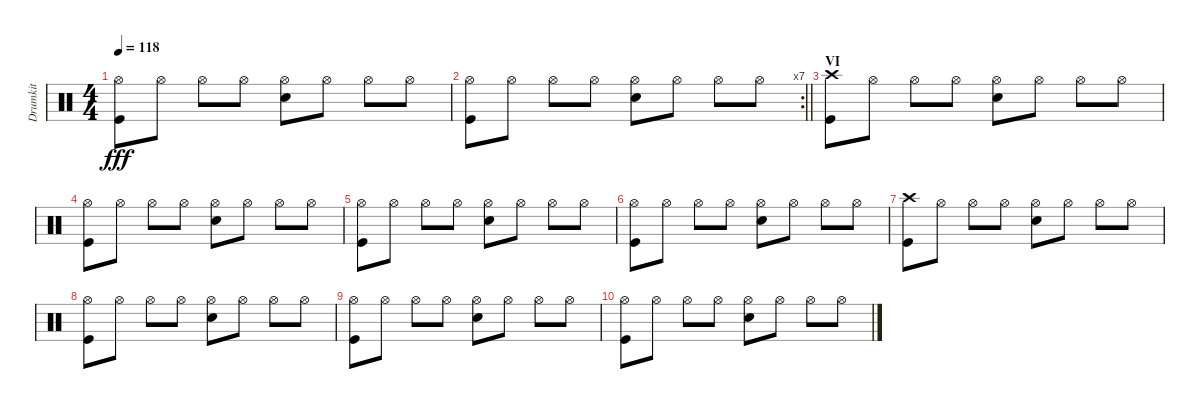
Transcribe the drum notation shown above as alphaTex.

\track ("Drumkit" "Drumkit") {instrument percussion}
\staff {score}
\articulation defaults
\ts (4 4)
\tempo 118
\clef neutral
\ks c
("Kick (hit)" "Hi-Hat (open)").8{dy fff} "Hi-Hat (open)".8 "Hi-Hat (open)".8 "Hi-Hat (open)".8 ("Hi-Hat (open)" "Snare (hit) 2").8 "Hi-Hat (open)".8 "Hi-Hat (open)".8 "Hi-Hat (open)".8 |
\rc 7
\barLineRight lightlight
("Kick (hit)" "Hi-Hat (open)").8 "Hi-Hat (open)".8 "Hi-Hat (open)".8 "Hi-Hat (open)".8 ("Hi-Hat (open)" "Snare (hit) 2").8 "Hi-Hat (open)".8 "Hi-Hat (open)".8 "Hi-Hat (open)".8{volume 16} |
\section ("" "VI")
("Kick (hit)" "Crash high (hit)").8 "Hi-Hat (open)".8 "Hi-Hat (open)".8 "Hi-Hat (open)".8 ("Hi-Hat (open)" "Snare (hit) 2").8 "Hi-Hat (open)".8 "Hi-Hat (open)".8 "Hi-Hat (open)".8 |
("Kick (hit)" "Hi-Hat (open)").8 "Hi-Hat (open)".8 "Hi-Hat (open)".8 "Hi-Hat (open)".8 ("Hi-Hat (open)" "Snare (hit) 2").8 "Hi-Hat (open)".8 "Hi-Hat (open)".8 "Hi-Hat (open)".8 |
("Kick (hit)" "Hi-Hat (open)").8 "Hi-Hat (open)".8 "Hi-Hat (open)".8 "Hi-Hat (open)".8 ("Hi-Hat (open)" "Snare (hit) 2").8 "Hi-Hat (open)".8 "Hi-Hat (open)".8 "Hi-Hat (open)".8 |
("Kick (hit)" "Hi-Hat (open)").8 "Hi-Hat (open)".8 "Hi-Hat (open)".8 "Hi-Hat (open)".8 ("Hi-Hat (open)" "Snare (hit) 2").8 "Hi-Hat (open)".8 "Hi-Hat (open)".8 "Hi-Hat (open)".8 |
("Kick (hit)" "Crash high (hit)").8 "Hi-Hat (open)".8 "Hi-Hat (open)".8 "Hi-Hat (open)".8 ("Hi-Hat (open)" "Snare (hit) 2").8 "Hi-Hat (open)".8 "Hi-Hat (open)".8 "Hi-Hat (open)".8 |
("Kick (hit)" "Hi-Hat (open)").8 "Hi-Hat (open)".8 "Hi-Hat (open)".8 "Hi-Hat (open)".8 ("Hi-Hat (open)" "Snare (hit) 2").8 "Hi-Hat (open)".8 "Hi-Hat (open)".8 "Hi-Hat (open)".8 |
("Kick (hit)" "Hi-Hat (open)").8 "Hi-Hat (open)".8 "Hi-Hat (open)".8 "Hi-Hat (open)".8 ("Hi-Hat (open)" "Snare (hit) 2").8 "Hi-Hat (open)".8 "Hi-Hat (open)".8 "Hi-Hat (open)".8{volume 0} |
("Kick (hit)" "Hi-Hat (open)").8 "Hi-Hat (open)".8 "Hi-Hat (open)".8 "Hi-Hat (open)".8 ("Hi-Hat (open)" "Snare (hit) 2").8 "Hi-Hat (open)".8 "Hi-Hat (open)".8 "Hi-Hat (open)".8
